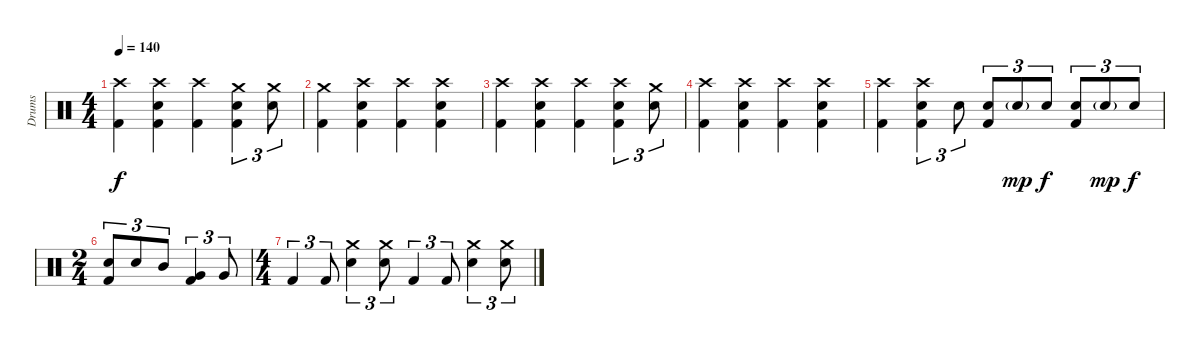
\track ("Drums" "Drums") {instrument percussion}
\staff {score}
\articulation defaults
\ts (4 4)
\tempo 140
\clef neutral
\ks c
("Crash high (hit)" "Kick (hit) 2").4{dy f} ("Crash high (hit)" "Electric Snare (hit)" "Kick (hit) 2").4 ("Crash high (hit)" "Kick (hit) 2").4 ("Crash medium (hit)" "Electric Snare (hit)" "Kick (hit) 2").4{tu (3 2)} ("Electric Snare (hit)" "Crash medium (hit)").8{tu (3 2)} |
("Kick (hit) 2" "Crash medium (hit)").4 ("Crash high (hit)" "Electric Snare (hit)" "Kick (hit) 2").4 ("Crash high (hit)" "Kick (hit) 2").4 ("Crash high (hit)" "Electric Snare (hit)" "Kick (hit) 2").4 |
("Crash high (hit)" "Kick (hit) 2").4 ("Crash high (hit)" "Electric Snare (hit)" "Kick (hit) 2").4 ("Crash high (hit)" "Kick (hit) 2").4 ("Crash high (hit)" "Electric Snare (hit)" "Kick (hit) 2").4{tu (3 2)} ("Electric Snare (hit)" "Crash medium (hit)").8{tu (3 2)} |
("Crash high (hit)" "Kick (hit) 2").4 ("Crash high (hit)" "Electric Snare (hit)" "Kick (hit) 2").4 ("Crash high (hit)" "Kick (hit) 2").4 ("Crash high (hit)" "Electric Snare (hit)" "Kick (hit) 2").4 |
("Crash high (hit)" "Kick (hit) 2").4 ("Crash high (hit)" "Electric Snare (hit)" "Kick (hit) 2").4{tu (3 2)} "Electric Snare (hit)".8{tu (3 2)} ("Kick (hit) 2" "Electric Snare (hit)").8{tu (3 2)} "Electric Snare (hit)"{g}.8{tu (3 2) dy mp} "Electric Snare (hit)".8{tu (3 2) dy f} ("Electric Snare (hit)" "Kick (hit) 2").8{tu (3 2)} "Electric Snare (hit)"{g}.8{tu (3 2) dy mp} "Electric Snare (hit)".8{tu (3 2) dy f} |
\ts (2 4)
("Electric Snare (hit)" "Kick (hit) 2").8{tu (3 2)} "Electric Snare (hit)".8{tu (3 2)} "Mid Tom (hit)".8{tu (3 2)} ("Very Low Tom (hit)" "Kick (hit) 2").4{tu (3 2)} "Very Low Tom (hit)".8{tu (3 2)} |
\ts (4 4)
"Kick (hit) 2".4{tu (3 2)} "Kick (hit) 2".8{tu (3 2)} ("Electric Snare (hit)" "Crash medium (hit)").4{tu (3 2)} ("Crash medium (hit)" "Electric Snare (hit)").8{tu (3 2)} "Kick (hit) 2".4{tu (3 2)} "Kick (hit) 2".8{tu (3 2)} ("Electric Snare (hit)" "Crash medium (hit)").4{tu (3 2)} ("Crash medium (hit)" "Electric Snare (hit)").8{tu (3 2)}
